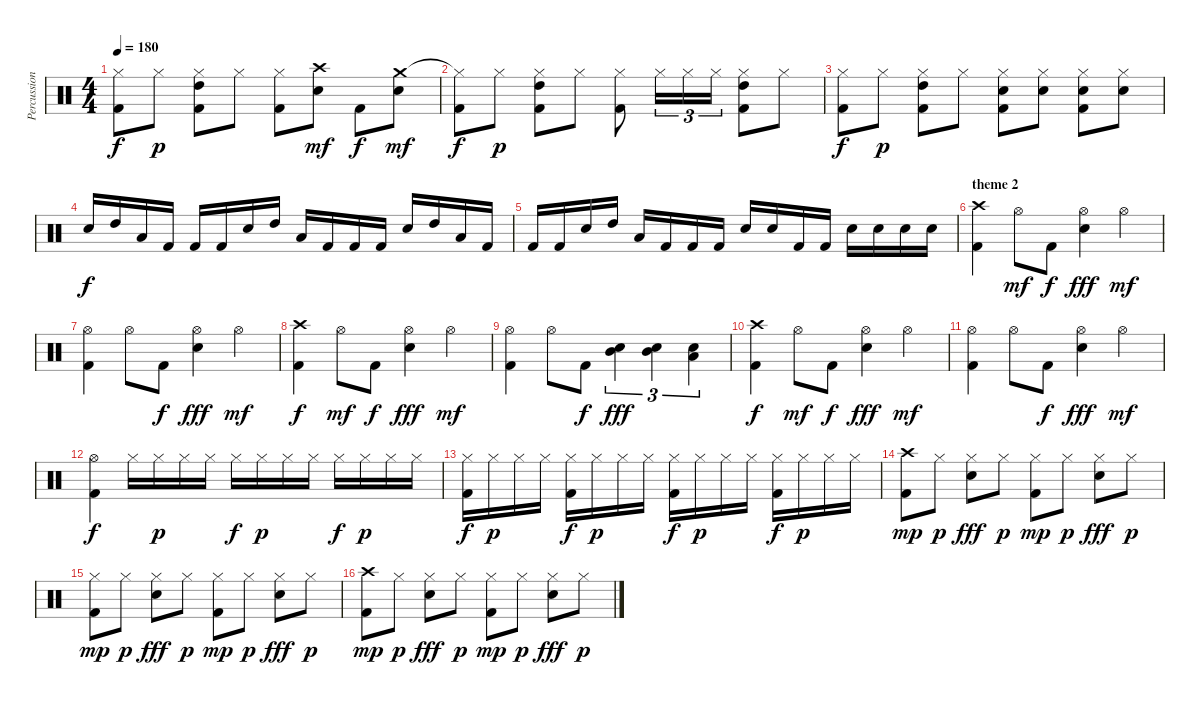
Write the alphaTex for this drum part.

\track ("Percussions" "Percussion") {instrument percussion}
\staff {score}
\articulation defaults
\ts (4 4)
\tempo 180
\clef neutral
\ks c
("Hi-Hat (closed)" "Kick (hit) 2").8{dy f} "Hi-Hat (closed)".8{dy p} ("Hi-Hat (closed)" "High Tom (hit)" "Kick (hit) 2").8 "Hi-Hat (closed)".8 ("Hi-Hat (closed)" "Kick (hit) 2").8 ("Crash high (hit)" "Electric Snare (hit)").8{dy mf} "Kick (hit) 2".8{dy f} ("Crash medium (hit)" "Electric Snare (hit)").8{dy mf} |
("Hi-Hat (closed)"{t} "Kick (hit) 2").8{dy f} "Hi-Hat (closed)".8{dy p} ("Hi-Hat (closed)" "High Tom (hit)" "Kick (hit) 2").8 "Hi-Hat (closed)".8 ("Hi-Hat (closed)" "Kick (hit) 2").8 "Hi-Hat (closed)".16{tu (3 2)} "Hi-Hat (closed)".16{tu (3 2)} "Hi-Hat (closed)".16{tu (3 2)} ("Hi-Hat (closed)" "High Tom (hit)" "Kick (hit) 2").8 "Hi-Hat (closed)".8 |
("Hi-Hat (closed)" "Kick (hit) 2").8{dy f} "Hi-Hat (closed)".8{dy p} ("Hi-Hat (closed)" "High Tom (hit)" "Kick (hit) 2").8 "Hi-Hat (closed)".8 ("Hi-Hat (closed)" "Electric Snare (hit)" "Kick (hit) 2").8 ("Hi-Hat (closed)" "Electric Snare (hit)").8 ("Hi-Hat (closed)" "Electric Snare (hit)" "Kick (hit) 2").8 ("Hi-Hat (closed)" "Electric Snare (hit)").8 |
"Electric Snare (hit)".16{dy f} "High Tom (hit)".16 "Low Tom (hit)".16 "Kick (hit) 2".16 "Kick (hit) 2".16 "Kick (hit) 2".16 "Electric Snare (hit)".16 "High Tom (hit)".16 "Low Tom (hit)".16 "Kick (hit) 2".16 "Kick (hit) 2".16 "Kick (hit) 2".16 "Electric Snare (hit)".16 "High Tom (hit)".16 "Low Tom (hit)".16 "Kick (hit) 2".16 |
"Kick (hit) 2".16 "Kick (hit) 2".16 "Electric Snare (hit)".16 "High Tom (hit)".16 "Low Tom (hit)".16 "Kick (hit) 2".16 "Kick (hit) 2".16 "Kick (hit) 2".16 "Electric Snare (hit)".16 "Electric Snare (hit)".16 "Kick (hit) 2".16 "Kick (hit) 2".16 "Electric Snare (hit)".16 "Electric Snare (hit)".16 "Electric Snare (hit)".16 "Electric Snare (hit)".16 |
\section ("" "theme 2")
("Crash high (hit)" "Kick (hit) 2").4 "Hi-Hat (open)".8{dy mf} "Kick (hit) 2".8{dy f} ("Hi-Hat (open)" "Electric Snare (hit)").4{dy fff} "Hi-Hat (open)".4{dy mf} |
("Hi-Hat (open)" "Kick (hit) 2").4 "Hi-Hat (open)".8 "Kick (hit) 2".8{dy f} ("Hi-Hat (open)" "Electric Snare (hit)").4{dy fff} "Hi-Hat (open)".4{dy mf} |
("Crash high (hit)" "Kick (hit) 2").4{dy f} "Hi-Hat (open)".8{dy mf} "Kick (hit) 2".8{dy f} ("Hi-Hat (open)" "Electric Snare (hit)").4{dy fff} "Hi-Hat (open)".4{dy mf} |
("Hi-Hat (open)" "Kick (hit) 2").4 "Hi-Hat (open)".8 "Kick (hit) 2".8{dy f} ("Mid Tom (hit)" "Electric Snare (hit)").4{tu (3 2) dy fff} ("Mid Tom (hit)" "Electric Snare (hit)").4{tu (3 2)} ("Low Tom (hit)" "Electric Snare (hit)").4{tu (3 2)} |
("Crash high (hit)" "Kick (hit) 2").4{dy f} "Hi-Hat (open)".8{dy mf} "Kick (hit) 2".8{dy f} ("Hi-Hat (open)" "Electric Snare (hit)").4{dy fff} "Hi-Hat (open)".4{dy mf} |
("Hi-Hat (open)" "Kick (hit) 2").4 "Hi-Hat (open)".8 "Kick (hit) 2".8{dy f} ("Hi-Hat (open)" "Electric Snare (hit)").4{dy fff} "Hi-Hat (open)".4{dy mf} |
("Hi-Hat (open)" "Kick (hit) 2").4{dy f} "Hi-Hat (closed)".16 "Hi-Hat (closed)".16{dy p} "Hi-Hat (closed)".16 "Hi-Hat (closed)".16 "Hi-Hat (closed)".16{dy f} "Hi-Hat (closed)".16{dy p} "Hi-Hat (closed)".16 "Hi-Hat (closed)".16 "Hi-Hat (closed)".16{dy f} "Hi-Hat (closed)".16{dy p} "Hi-Hat (closed)".16 "Hi-Hat (closed)".16 |
("Hi-Hat (closed)" "Kick (hit) 2").16{dy f} "Hi-Hat (closed)".16{dy p} "Hi-Hat (closed)".16 "Hi-Hat (closed)".16 ("Hi-Hat (closed)" "Kick (hit) 2").16{dy f} "Hi-Hat (closed)".16{dy p} "Hi-Hat (closed)".16 "Hi-Hat (closed)".16 ("Hi-Hat (closed)" "Kick (hit) 2").16{dy f} "Hi-Hat (closed)".16{dy p} "Hi-Hat (closed)".16 "Hi-Hat (closed)".16 ("Hi-Hat (closed)" "Kick (hit) 2").16{dy f} "Hi-Hat (closed)".16{dy p} "Hi-Hat (closed)".16 "Hi-Hat (closed)".16 |
("Crash high (hit)" "Kick (hit) 2").8{dy mp} "Hi-Hat (closed)".8{dy p} ("Hi-Hat (closed)" "Electric Snare (hit)").8{dy fff} "Hi-Hat (closed)".8{dy p} ("Hi-Hat (closed)" "Kick (hit) 2").8{dy mp} "Hi-Hat (closed)".8{dy p} ("Hi-Hat (closed)" "Electric Snare (hit)").8{dy fff} "Hi-Hat (closed)".8{dy p} |
("Hi-Hat (closed)" "Kick (hit) 2").8{dy mp} "Hi-Hat (closed)".8{dy p} ("Hi-Hat (closed)" "Electric Snare (hit)").8{dy fff} "Hi-Hat (closed)".8{dy p} ("Hi-Hat (closed)" "Kick (hit) 2").8{dy mp} "Hi-Hat (closed)".8{dy p} ("Hi-Hat (closed)" "Electric Snare (hit)").8{dy fff} "Hi-Hat (closed)".8{dy p} |
("Crash high (hit)" "Kick (hit) 2").8{dy mp} "Hi-Hat (closed)".8{dy p} ("Hi-Hat (closed)" "Electric Snare (hit)").8{dy fff} "Hi-Hat (closed)".8{dy p} ("Hi-Hat (closed)" "Kick (hit) 2").8{dy mp} "Hi-Hat (closed)".8{dy p} ("Hi-Hat (closed)" "Electric Snare (hit)").8{dy fff} "Hi-Hat (closed)".8{dy p}
